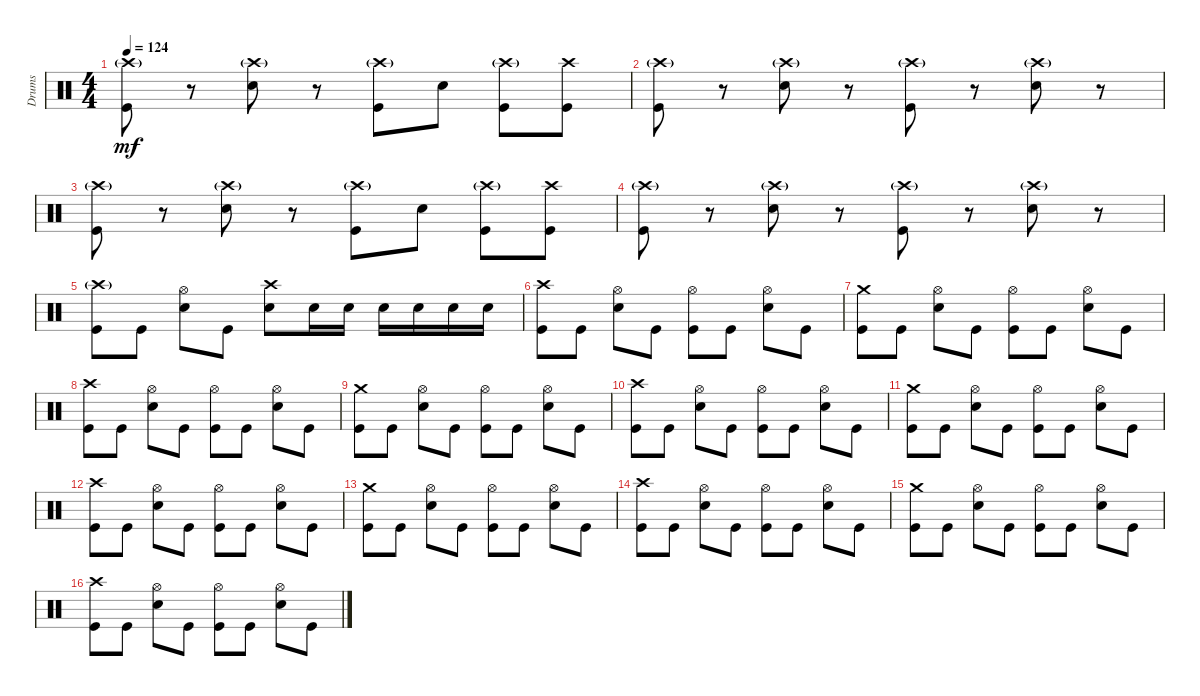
\track ("Drums" "Drums") {instrument percussion}
\staff {score}
\articulation defaults
\ts (4 4)
\tempo 124
\clef neutral
\ks c
("Crash high (hit)"{g} "Kick (hit)").8{dy mf} r.8 ("Crash high (hit)"{g} "Electric Snare (hit)").8 r.8 ("Crash high (hit)"{g} "Kick (hit)").8 "Electric Snare (hit)".8 ("Crash high (hit)"{g} "Kick (hit)").8 ("Crash high (hit)" "Kick (hit)").8 |
("Crash high (hit)"{g} "Kick (hit)").8 r.8 ("Crash high (hit)"{g} "Electric Snare (hit)").8 r.8 ("Crash high (hit)"{g} "Kick (hit)").8 r.8 ("Crash high (hit)"{g} "Electric Snare (hit)").8 r.8 |
("Crash high (hit)"{g} "Kick (hit)").8 r.8 ("Crash high (hit)"{g} "Electric Snare (hit)").8 r.8 ("Crash high (hit)"{g} "Kick (hit)").8 "Electric Snare (hit)".8 ("Crash high (hit)"{g} "Kick (hit)").8 ("Crash high (hit)" "Kick (hit)").8 |
("Crash high (hit)"{g} "Kick (hit)").8 r.8 ("Crash high (hit)"{g} "Electric Snare (hit)").8 r.8 ("Crash high (hit)"{g} "Kick (hit)").8 r.8 ("Crash high (hit)"{g} "Electric Snare (hit)").8 r.8 |
("Crash high (hit)"{g} "Kick (hit)").8 "Kick (hit)".8 ("Hi-Hat (open)" "Electric Snare (hit)").8 "Kick (hit)".8 ("Crash high (hit)" "Electric Snare (hit)").8 "Electric Snare (hit)".16 "Electric Snare (hit)".16 "Electric Snare (hit)".16 "Electric Snare (hit)".16 "Electric Snare (hit)".16 "Electric Snare (hit)".16 |
("Crash high (hit)" "Kick (hit)").8 "Kick (hit)".8 ("Hi-Hat (open)" "Electric Snare (hit)").8 "Kick (hit)".8 ("Hi-Hat (open)" "Kick (hit)").8 "Kick (hit)".8 ("Hi-Hat (open)" "Electric Snare (hit)").8 "Kick (hit)".8 |
("Crash medium (hit)" "Kick (hit)").8 "Kick (hit)".8 ("Hi-Hat (open)" "Electric Snare (hit)").8 "Kick (hit)".8 ("Hi-Hat (open)" "Kick (hit)").8 "Kick (hit)".8 ("Hi-Hat (open)" "Electric Snare (hit)").8 "Kick (hit)".8 |
("Crash high (hit)" "Kick (hit)").8 "Kick (hit)".8 ("Hi-Hat (open)" "Electric Snare (hit)").8 "Kick (hit)".8 ("Hi-Hat (open)" "Kick (hit)").8 "Kick (hit)".8 ("Hi-Hat (open)" "Electric Snare (hit)").8 "Kick (hit)".8 |
("Crash medium (hit)" "Kick (hit)").8 "Kick (hit)".8 ("Hi-Hat (open)" "Electric Snare (hit)").8 "Kick (hit)".8 ("Hi-Hat (open)" "Kick (hit)").8 "Kick (hit)".8 ("Hi-Hat (open)" "Electric Snare (hit)").8 "Kick (hit)".8 |
("Crash high (hit)" "Kick (hit)").8 "Kick (hit)".8 ("Hi-Hat (open)" "Electric Snare (hit)").8 "Kick (hit)".8 ("Hi-Hat (open)" "Kick (hit)").8 "Kick (hit)".8 ("Hi-Hat (open)" "Electric Snare (hit)").8 "Kick (hit)".8 |
("Crash medium (hit)" "Kick (hit)").8 "Kick (hit)".8 ("Hi-Hat (open)" "Electric Snare (hit)").8 "Kick (hit)".8 ("Hi-Hat (open)" "Kick (hit)").8 "Kick (hit)".8 ("Hi-Hat (open)" "Electric Snare (hit)").8 "Kick (hit)".8 |
("Crash high (hit)" "Kick (hit)").8 "Kick (hit)".8 ("Hi-Hat (open)" "Electric Snare (hit)").8 "Kick (hit)".8 ("Hi-Hat (open)" "Kick (hit)").8 "Kick (hit)".8 ("Hi-Hat (open)" "Electric Snare (hit)").8 "Kick (hit)".8 |
("Crash medium (hit)" "Kick (hit)").8 "Kick (hit)".8 ("Hi-Hat (open)" "Electric Snare (hit)").8 "Kick (hit)".8 ("Hi-Hat (open)" "Kick (hit)").8 "Kick (hit)".8 ("Hi-Hat (open)" "Electric Snare (hit)").8 "Kick (hit)".8 |
("Crash high (hit)" "Kick (hit)").8 "Kick (hit)".8 ("Hi-Hat (open)" "Electric Snare (hit)").8 "Kick (hit)".8 ("Hi-Hat (open)" "Kick (hit)").8 "Kick (hit)".8 ("Hi-Hat (open)" "Electric Snare (hit)").8 "Kick (hit)".8 |
("Crash medium (hit)" "Kick (hit)").8 "Kick (hit)".8 ("Hi-Hat (open)" "Electric Snare (hit)").8 "Kick (hit)".8 ("Hi-Hat (open)" "Kick (hit)").8 "Kick (hit)".8 ("Hi-Hat (open)" "Electric Snare (hit)").8 "Kick (hit)".8 |
("Crash high (hit)" "Kick (hit)").8 "Kick (hit)".8 ("Hi-Hat (open)" "Electric Snare (hit)").8 "Kick (hit)".8 ("Hi-Hat (open)" "Kick (hit)").8 "Kick (hit)".8 ("Hi-Hat (open)" "Electric Snare (hit)").8 "Kick (hit)".8
